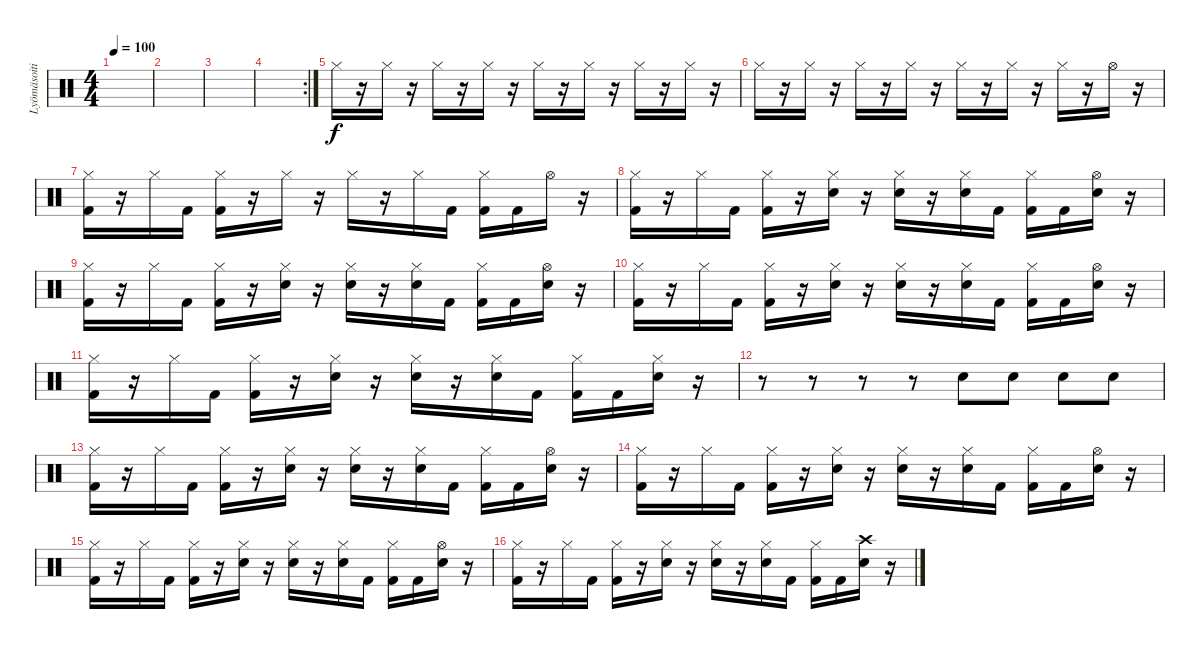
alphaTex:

\track ("Lyömäsoitin" "Lyömäsoiti") {instrument percussion}
\staff {score}
\articulation defaults
\ts (4 4)
\tempo 100
\clef neutral
\ks c
|
|
|
\rc 2
|
"Hi-Hat (closed)".16 r.16 "Hi-Hat (closed)".16 r.16 "Hi-Hat (closed)".16 r.16 "Hi-Hat (closed)".16 r.16 "Hi-Hat (closed)".16 r.16 "Hi-Hat (closed)".16 r.16 "Hi-Hat (closed)".16 r.16 "Hi-Hat (closed)".16 r.16 |
"Hi-Hat (closed)".16 r.16 "Hi-Hat (closed)".16 r.16 "Hi-Hat (closed)".16 r.16 "Hi-Hat (closed)".16 r.16 "Hi-Hat (closed)".16 r.16 "Hi-Hat (closed)".16 r.16 "Hi-Hat (closed)".16 r.16 "Hi-Hat (open)".16 r.16 |
("Hi-Hat (closed)" "Kick (hit) 2").16 r.16 "Hi-Hat (closed)".16 "Kick (hit) 2".16 ("Hi-Hat (closed)" "Kick (hit) 2").16 r.16 "Hi-Hat (closed)".16 r.16 "Hi-Hat (closed)".16 r.16 "Hi-Hat (closed)".16 "Kick (hit) 2".16 ("Hi-Hat (closed)" "Kick (hit) 2").16 "Kick (hit) 2".16 "Hi-Hat (open)".16 r.16 |
("Hi-Hat (closed)" "Kick (hit) 2").16 r.16 "Hi-Hat (closed)".16 "Kick (hit) 2".16 ("Hi-Hat (closed)" "Kick (hit) 2").16 r.16 ("Hi-Hat (closed)" "Snare (hit) 2").16 r.16 ("Hi-Hat (closed)" "Snare (hit) 2").16 r.16 ("Hi-Hat (closed)" "Snare (hit) 2").16 "Kick (hit) 2".16 ("Hi-Hat (closed)" "Kick (hit) 2").16 "Kick (hit) 2".16 ("Hi-Hat (open)" "Snare (hit) 2").16 r.16 |
("Hi-Hat (closed)" "Kick (hit) 2").16 r.16 "Hi-Hat (closed)".16 "Kick (hit) 2".16 ("Hi-Hat (closed)" "Kick (hit) 2").16 r.16 ("Hi-Hat (closed)" "Snare (hit) 2").16 r.16 ("Hi-Hat (closed)" "Snare (hit) 2").16 r.16 ("Hi-Hat (closed)" "Snare (hit) 2").16 "Kick (hit) 2".16 ("Hi-Hat (closed)" "Kick (hit) 2").16 "Kick (hit) 2".16 ("Hi-Hat (open)" "Snare (hit) 2").16 r.16 |
("Hi-Hat (closed)" "Kick (hit) 2").16 r.16 "Hi-Hat (closed)".16 "Kick (hit) 2".16 ("Hi-Hat (closed)" "Kick (hit) 2").16 r.16 ("Hi-Hat (closed)" "Snare (hit) 2").16 r.16 ("Hi-Hat (closed)" "Snare (hit) 2").16 r.16 ("Hi-Hat (closed)" "Snare (hit) 2").16 "Kick (hit) 2".16 ("Hi-Hat (closed)" "Kick (hit) 2").16 "Kick (hit) 2".16 ("Hi-Hat (open)" "Snare (hit) 2").16 r.16 |
("Hi-Hat (closed)" "Kick (hit) 2").16 r.16 "Hi-Hat (closed)".16 "Kick (hit) 2".16 ("Hi-Hat (closed)" "Kick (hit) 2").16 r.16 ("Hi-Hat (closed)" "Snare (hit) 2").16 r.16 ("Hi-Hat (closed)" "Snare (hit) 2").16 r.16 ("Hi-Hat (closed)" "Snare (hit) 2").16 "Kick (hit) 2".16 ("Hi-Hat (closed)" "Kick (hit) 2").16 "Kick (hit) 2".16 ("Hi-Hat (closed)" "Snare (hit) 2").16 r.16 |
r.8 r.8 r.8 r.8 "Snare (hit) 2".8 "Snare (hit) 2".8 "Snare (hit) 2".8 "Snare (hit) 2".8 |
("Hi-Hat (closed)" "Kick (hit) 2").16 r.16 "Hi-Hat (closed)".16 "Kick (hit) 2".16 ("Hi-Hat (closed)" "Kick (hit) 2").16 r.16 ("Hi-Hat (closed)" "Snare (hit) 2").16 r.16 ("Hi-Hat (closed)" "Snare (hit) 2").16 r.16 ("Hi-Hat (closed)" "Snare (hit) 2").16 "Kick (hit) 2".16 ("Hi-Hat (closed)" "Kick (hit) 2").16 "Kick (hit) 2".16 ("Hi-Hat (open)" "Snare (hit) 2").16 r.16 |
("Hi-Hat (closed)" "Kick (hit) 2").16 r.16 "Hi-Hat (closed)".16 "Kick (hit) 2".16 ("Hi-Hat (closed)" "Kick (hit) 2").16 r.16 ("Hi-Hat (closed)" "Snare (hit) 2").16 r.16 ("Hi-Hat (closed)" "Snare (hit) 2").16 r.16 ("Hi-Hat (closed)" "Snare (hit) 2").16 "Kick (hit) 2".16 ("Hi-Hat (closed)" "Kick (hit) 2").16 "Kick (hit) 2".16 ("Hi-Hat (open)" "Snare (hit) 2").16 r.16 |
("Hi-Hat (closed)" "Kick (hit) 2").16 r.16 "Hi-Hat (closed)".16 "Kick (hit) 2".16 ("Hi-Hat (closed)" "Kick (hit) 2").16 r.16 ("Hi-Hat (closed)" "Snare (hit) 2").16 r.16 ("Hi-Hat (closed)" "Snare (hit) 2").16 r.16 ("Hi-Hat (closed)" "Snare (hit) 2").16 "Kick (hit) 2".16 ("Hi-Hat (closed)" "Kick (hit) 2").16 "Kick (hit) 2".16 ("Hi-Hat (open)" "Snare (hit) 2").16 r.16 |
("Hi-Hat (closed)" "Kick (hit) 2").16 r.16 "Hi-Hat (closed)".16 "Kick (hit) 2".16 ("Hi-Hat (closed)" "Kick (hit) 2").16 r.16 ("Hi-Hat (closed)" "Snare (hit) 2").16 r.16 ("Hi-Hat (closed)" "Snare (hit) 2").16 r.16 ("Hi-Hat (closed)" "Snare (hit) 2").16 "Kick (hit) 2".16 ("Hi-Hat (closed)" "Kick (hit) 2").16 "Kick (hit) 2".16 ("Crash high (hit)" "Snare (hit) 2").16 r.16
